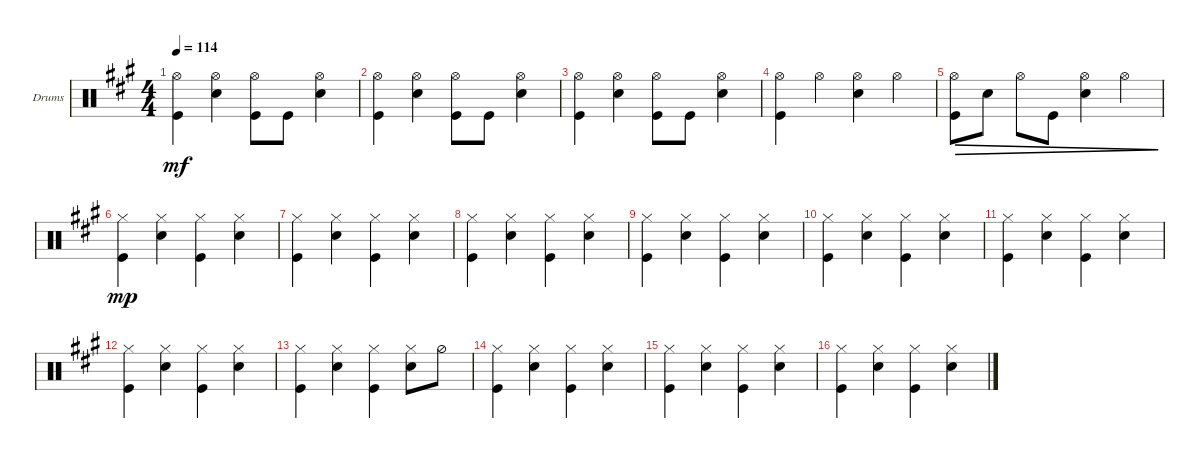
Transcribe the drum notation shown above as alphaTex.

\defaultSystemsLayout 4
\bracketExtendMode groupsimilarinstruments
\firstSystemTrackNameOrientation horizontal
\otherSystemsTrackNameOrientation horizontal
\track ("Drumkit" "Drums") {instrument percussion}
\staff {score}
\articulation defaults
\ts (4 4)
\tempo 114
\clef neutral
\ks f#minor
("Hi-Hat (open)" "Kick (hit)").4{dy mf} ("Hi-Hat (open)" "Snare (hit) 2").4 ("Hi-Hat (open)" "Kick (hit)").8 "Kick (hit)".8 ("Hi-Hat (open)" "Snare (hit) 2").4 |
("Hi-Hat (open)" "Kick (hit)").4 ("Hi-Hat (open)" "Snare (hit) 2").4 ("Hi-Hat (open)" "Kick (hit)").8 "Kick (hit)".8 ("Hi-Hat (open)" "Snare (hit) 2").4 |
("Hi-Hat (open)" "Kick (hit)").4 ("Hi-Hat (open)" "Snare (hit) 2").4 ("Hi-Hat (open)" "Kick (hit)").8 "Kick (hit)".8 ("Hi-Hat (open)" "Snare (hit) 2").4 |
("Hi-Hat (open)" "Kick (hit)").4 "Hi-Hat (open)".4 ("Hi-Hat (open)" "Snare (hit) 2").4 "Hi-Hat (open)".4 |
("Kick (hit)" "Hi-Hat (open)").8{dec} "Snare (hit) 2".8{dec} "Hi-Hat (open)".8{dec} "Kick (hit)".8{dec} ("Snare (hit) 2" "Hi-Hat (open)").4{dec} "Hi-Hat (open)".4{dec} |
("Hi-Hat (closed)" "Kick (hit)").4{dy mp} ("Hi-Hat (closed)" "Snare (hit) 2").4 ("Hi-Hat (closed)" "Kick (hit)").4 ("Hi-Hat (closed)" "Snare (hit) 2").4 |
("Hi-Hat (closed)" "Kick (hit)").4 ("Hi-Hat (closed)" "Snare (hit) 2").4 ("Hi-Hat (closed)" "Kick (hit)").4 ("Hi-Hat (closed)" "Snare (hit) 2").4 |
("Hi-Hat (closed)" "Kick (hit)").4 ("Hi-Hat (closed)" "Snare (hit) 2").4 ("Hi-Hat (closed)" "Kick (hit)").4 ("Hi-Hat (closed)" "Snare (hit) 2").4 |
("Hi-Hat (closed)" "Kick (hit)").4 ("Hi-Hat (closed)" "Snare (hit) 2").4 ("Hi-Hat (closed)" "Kick (hit)").4 ("Hi-Hat (closed)" "Snare (hit) 2").4 |
("Hi-Hat (closed)" "Kick (hit)").4 ("Hi-Hat (closed)" "Snare (hit) 2").4 ("Hi-Hat (closed)" "Kick (hit)").4 ("Hi-Hat (closed)" "Snare (hit) 2").4 |
("Hi-Hat (closed)" "Kick (hit)").4 ("Hi-Hat (closed)" "Snare (hit) 2").4 ("Hi-Hat (closed)" "Kick (hit)").4 ("Hi-Hat (closed)" "Snare (hit) 2").4 |
("Hi-Hat (closed)" "Kick (hit)").4 ("Hi-Hat (closed)" "Snare (hit) 2").4 ("Hi-Hat (closed)" "Kick (hit)").4 ("Hi-Hat (closed)" "Snare (hit) 2").4 |
("Hi-Hat (closed)" "Kick (hit)").4 ("Hi-Hat (closed)" "Snare (hit) 2").4 ("Hi-Hat (closed)" "Kick (hit)").4 ("Hi-Hat (closed)" "Snare (hit) 2").8 "Hi-Hat (half)".8 |
("Hi-Hat (closed)" "Kick (hit)").4 ("Hi-Hat (closed)" "Snare (hit) 2").4 ("Hi-Hat (closed)" "Kick (hit)").4 ("Hi-Hat (closed)" "Snare (hit) 2").4 |
("Hi-Hat (closed)" "Kick (hit)").4 ("Hi-Hat (closed)" "Snare (hit) 2").4 ("Hi-Hat (closed)" "Kick (hit)").4 ("Hi-Hat (closed)" "Snare (hit) 2").4 |
("Hi-Hat (closed)" "Kick (hit)").4 ("Hi-Hat (closed)" "Snare (hit) 2").4 ("Hi-Hat (closed)" "Kick (hit)").4 ("Hi-Hat (closed)" "Snare (hit) 2").4
